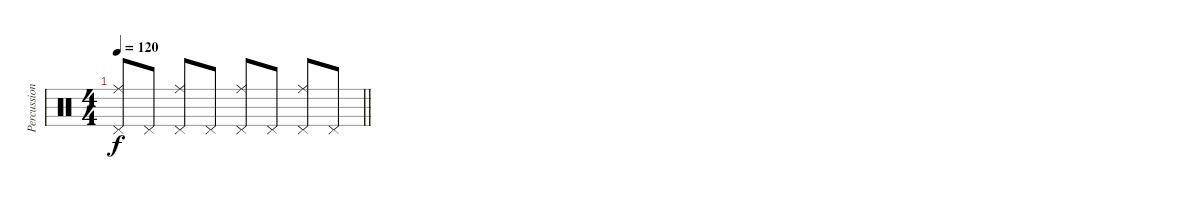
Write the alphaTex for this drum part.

\track ("Percussion" "Percussion") {instrument percussion}
\staff {score}
\articulation defaults
\ts (4 4)
\tempo 120
\clef neutral
\barLineRight lightlight
\ks c
("Pedal Hi-Hat (hit)" "Ride (middle)").8{dy f} "Pedal Hi-Hat (hit)".8 ("Pedal Hi-Hat (hit)" "Ride (middle)").8 "Pedal Hi-Hat (hit)".8 ("Pedal Hi-Hat (hit)" "Ride (middle)").8 "Pedal Hi-Hat (hit)".8 ("Pedal Hi-Hat (hit)" "Ride (middle)").8 "Pedal Hi-Hat (hit)".8
